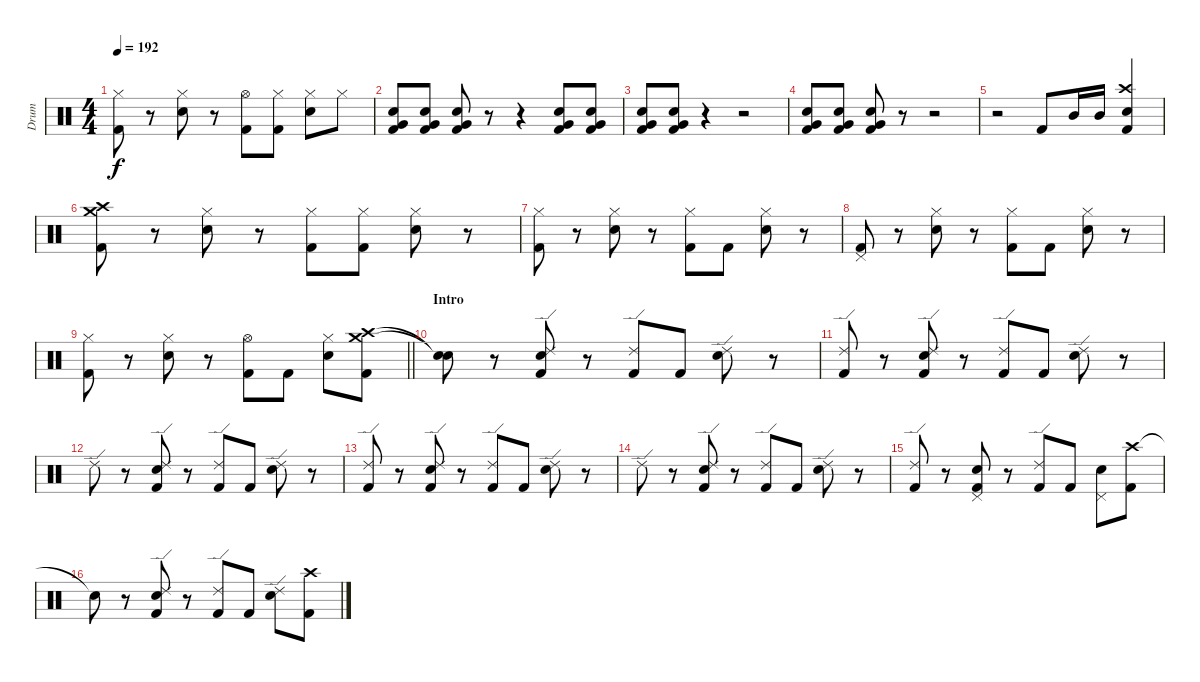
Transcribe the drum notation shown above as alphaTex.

\track ("Drum" "Drum") {instrument percussion}
\staff {score}
\articulation defaults
\ts (4 4)
\tempo 192
\clef neutral
\ks c
("Hi-Hat (closed)" "Kick (hit) 2").8{dy f} r.8 ("Hi-Hat (closed)" "Electric Snare (hit)").8 r.8 ("Hi-Hat (open)" "Kick (hit) 2").8 ("Hi-Hat (closed)" "Kick (hit) 2").8 ("Hi-Hat (closed)" "Electric Snare (hit)").8 "Hi-Hat (closed)".8 |
("Very Low Tom (hit)" "Electric Snare (hit)" "Kick (hit) 2").8 ("Very Low Tom (hit)" "Electric Snare (hit)" "Kick (hit) 2").8 ("Very Low Tom (hit)" "Electric Snare (hit)" "Kick (hit) 2").8 r.8 r.4 ("Very Low Tom (hit)" "Electric Snare (hit)" "Kick (hit) 2").8 ("Very Low Tom (hit)" "Electric Snare (hit)" "Kick (hit) 2").8 |
("Very Low Tom (hit)" "Electric Snare (hit)" "Kick (hit) 2").8 ("Very Low Tom (hit)" "Electric Snare (hit)" "Kick (hit) 2").8 r.4 r.2 |
("Very Low Tom (hit)" "Electric Snare (hit)" "Kick (hit) 2").8 ("Very Low Tom (hit)" "Electric Snare (hit)" "Kick (hit) 2").8 ("Very Low Tom (hit)" "Electric Snare (hit)" "Kick (hit) 2").8 r.8 r.2 |
r.2 "Kick (hit) 2".8 "Mid Tom (hit)".16 "Mid Tom (hit)".16 ("Crash high (hit)" "Snare (hit) 2" "Kick (hit) 2").4 |
("Crash high (hit)" "Crash medium (hit)" "Kick (hit) 2").8 r.8 ("Hi-Hat (closed)" "Electric Snare (hit)").8 r.8 ("Hi-Hat (closed)" "Kick (hit) 2").8 ("Hi-Hat (closed)" "Kick (hit) 2").8 ("Hi-Hat (closed)" "Electric Snare (hit)").8 r.8 |
("Hi-Hat (closed)" "Kick (hit) 2").8 r.8 ("Hi-Hat (closed)" "Electric Snare (hit)").8 r.8 ("Hi-Hat (closed)" "Kick (hit) 2").8 "Kick (hit) 2".8 ("Hi-Hat (closed)" "Electric Snare (hit)").8 r.8 |
("Pedal Hi-Hat (hit)" "Kick (hit) 2").8 r.8 ("Hi-Hat (closed)" "Electric Snare (hit)").8 r.8 ("Hi-Hat (closed)" "Kick (hit) 2").8 "Kick (hit) 2".8 ("Hi-Hat (closed)" "Electric Snare (hit)").8 r.8 |
\barLineRight lightlight
("Hi-Hat (closed)" "Kick (hit) 2").8 r.8 ("Hi-Hat (closed)" "Electric Snare (hit)").8 r.8 ("Hi-Hat (open)" "Kick (hit) 2").8 "Kick (hit) 2".8 ("Hi-Hat (closed)" "Electric Snare (hit)").8 ("Crash high (hit)" "Crash medium (hit)" "Kick (hit) 2").8 |
\section ("" "Intro")
("Snare (hit)"{t} "Snare (hit)"{t}).8 r.8 ("Ride (edge) 2" "Electric Snare (hit)" "Kick (hit) 2").8 r.8 ("Ride (edge) 2" "Kick (hit) 2").8 "Kick (hit) 2".8 ("Ride (edge) 2" "Electric Snare (hit)").8 r.8 |
("Ride (edge) 2" "Kick (hit) 2").8 r.8 ("Ride (edge) 2" "Electric Snare (hit)" "Kick (hit) 2").8 r.8 ("Ride (edge) 2" "Kick (hit) 2").8 "Kick (hit) 2".8 ("Ride (edge) 2" "Electric Snare (hit)").8 r.8 |
"Ride (edge) 2".8 r.8 ("Ride (edge) 2" "Electric Snare (hit)" "Kick (hit) 2").8 r.8 ("Ride (edge) 2" "Kick (hit) 2").8 "Kick (hit) 2".8 ("Ride (edge) 2" "Electric Snare (hit)").8 r.8 |
("Ride (edge) 2" "Kick (hit) 2").8 r.8 ("Ride (edge) 2" "Electric Snare (hit)" "Kick (hit) 2").8 r.8 ("Ride (edge) 2" "Kick (hit) 2").8 "Kick (hit) 2".8 ("Ride (edge) 2" "Electric Snare (hit)").8 r.8 |
"Ride (edge) 2".8 r.8 ("Ride (edge) 2" "Electric Snare (hit)" "Kick (hit) 2").8 r.8 ("Ride (edge) 2" "Kick (hit) 2").8 "Kick (hit) 2".8 ("Ride (edge) 2" "Electric Snare (hit)").8 r.8 |
("Ride (edge) 2" "Kick (hit) 2").8 r.8 ("Pedal Hi-Hat (hit)" "Electric Snare (hit)" "Kick (hit) 2").8 r.8 ("Ride (edge) 2" "Kick (hit) 2").8 "Kick (hit) 2".8 ("Pedal Hi-Hat (hit)" "Electric Snare (hit)").8 ("Crash high (hit)" "Kick (hit) 2").8 |
"Snare (hit)"{t}.8 r.8 ("Ride (edge) 2" "Electric Snare (hit)" "Kick (hit) 2").8 r.8 ("Ride (edge) 2" "Kick (hit) 2").8 "Kick (hit) 2".8 ("Ride (edge) 2" "Electric Snare (hit)").8 ("Crash high (hit)" "Kick (hit) 2").8
